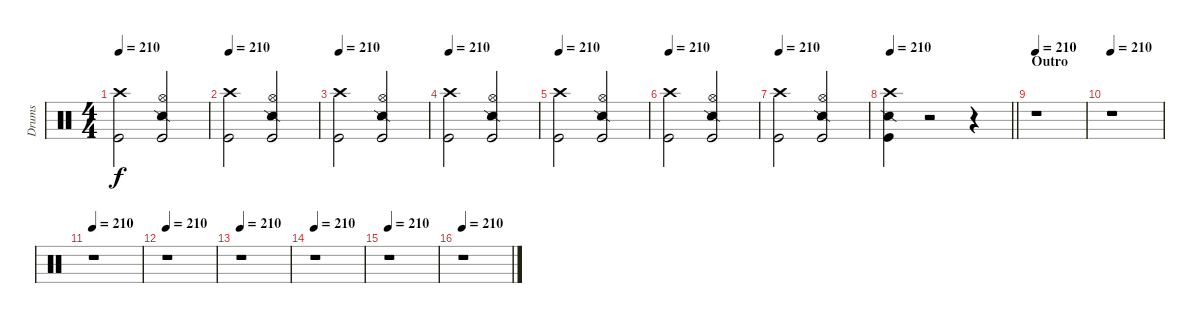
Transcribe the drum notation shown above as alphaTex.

\track ("Drums" "Drums") {instrument percussion}
\staff {score}
\articulation defaults
\ts (4 4)
\tempo 210
\clef neutral
\ks c
("Crash high (hit)" "Kick (hit)").2{dy f} ("Hi-Hat (open)" "Snare (side stick) 2" "Kick (hit)").2 |
\tempo 210
("Crash high (hit)" "Kick (hit)").2 ("Hi-Hat (open)" "Snare (side stick) 2" "Kick (hit)").2 |
\tempo 210
("Crash high (hit)" "Kick (hit)").2 ("Hi-Hat (open)" "Snare (side stick) 2" "Kick (hit)").2 |
\tempo 210
("Crash high (hit)" "Kick (hit)").2 ("Hi-Hat (open)" "Snare (side stick) 2" "Kick (hit)").2 |
\tempo 210
("Crash high (hit)" "Kick (hit)").2 ("Hi-Hat (open)" "Snare (side stick) 2" "Kick (hit)").2 |
\tempo 210
("Crash high (hit)" "Kick (hit)").2 ("Hi-Hat (open)" "Snare (side stick) 2" "Kick (hit)").2 |
\tempo 210
("Crash high (hit)" "Kick (hit)").2 ("Hi-Hat (open)" "Snare (side stick) 2" "Kick (hit)").2 |
\tempo 210
\barLineRight lightlight
("Crash high (hit)" "Snare (side stick) 2" "Kick (hit)").4 r.2 r.4 |
\section ("" "Outro")
\tempo 210
r.1 |
\tempo 210
r.1 |
\tempo 210
r.1 |
\tempo 210
r.1 |
\tempo 210
r.1 |
\tempo 210
r.1 |
\tempo 210
r.1 |
\tempo 210
r.1
